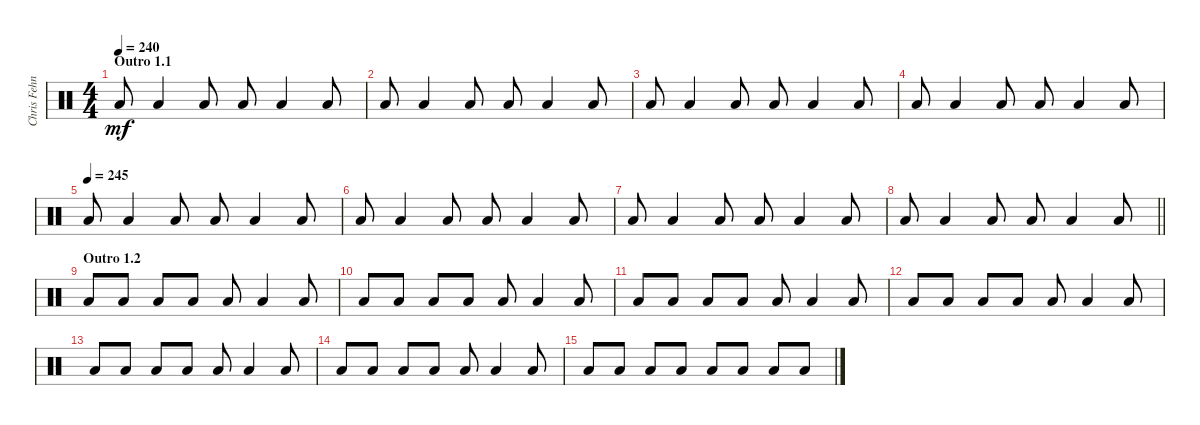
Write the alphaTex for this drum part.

\track ("Chris Fehn" "Chris Fehn") {instrument percussion}
\staff {score}
\articulation defaults
\ts (4 4)
\section ("" "Outro 1.1")
\tempo 240
\clef neutral
\ks c "Low Floor Tom (hit)".8{dy mf} "Low Floor Tom (hit)".4 "Low Floor Tom (hit)".8 "Low Floor Tom (hit)".8 "Low Floor Tom (hit)".4 "Low Floor Tom (hit)".8
|
"Low Floor Tom (hit)".8 "Low Floor Tom (hit)".4 "Low Floor Tom (hit)".8 "Low Floor Tom (hit)".8 "Low Floor Tom (hit)".4 "Low Floor Tom (hit)".8 |
"Low Floor Tom (hit)".8 "Low Floor Tom (hit)".4 "Low Floor Tom (hit)".8 "Low Floor Tom (hit)".8 "Low Floor Tom (hit)".4 "Low Floor Tom (hit)".8 |
"Low Floor Tom (hit)".8 "Low Floor Tom (hit)".4 "Low Floor Tom (hit)".8 "Low Floor Tom (hit)".8 "Low Floor Tom (hit)".4 "Low Floor Tom (hit)".8 |
\tempo (245)
"Low Floor Tom (hit)".8 "Low Floor Tom (hit)".4 "Low Floor Tom (hit)".8 "Low Floor Tom (hit)".8 "Low Floor Tom (hit)".4 "Low Floor Tom (hit)".8 |
"Low Floor Tom (hit)".8 "Low Floor Tom (hit)".4 "Low Floor Tom (hit)".8 "Low Floor Tom (hit)".8 "Low Floor Tom (hit)".4 "Low Floor Tom (hit)".8 |
"Low Floor Tom (hit)".8 "Low Floor Tom (hit)".4 "Low Floor Tom (hit)".8 "Low Floor Tom (hit)".8 "Low Floor Tom (hit)".4 "Low Floor Tom (hit)".8 |
\barLineRight lightlight "Low Floor Tom (hit)".8 "Low Floor Tom (hit)".4 "Low Floor Tom (hit)".8 "Low Floor Tom (hit)".8 "Low Floor Tom (hit)".4 "Low Floor Tom (hit)".8
|
\section ("" "Outro 1.2")
"Low Floor Tom (hit)".8 "Low Floor Tom (hit)".8 "Low Floor Tom (hit)".8 "Low Floor Tom (hit)".8 "Low Floor Tom (hit)".8 "Low Floor Tom (hit)".4 "Low Floor Tom (hit)".8 |
"Low Floor Tom (hit)".8 "Low Floor Tom (hit)".8 "Low Floor Tom (hit)".8 "Low Floor Tom (hit)".8 "Low Floor Tom (hit)".8 "Low Floor Tom (hit)".4 "Low Floor Tom (hit)".8 |
"Low Floor Tom (hit)".8 "Low Floor Tom (hit)".8 "Low Floor Tom (hit)".8 "Low Floor Tom (hit)".8 "Low Floor Tom (hit)".8 "Low Floor Tom (hit)".4 "Low Floor Tom (hit)".8 |
"Low Floor Tom (hit)".8 "Low Floor Tom (hit)".8 "Low Floor Tom (hit)".8 "Low Floor Tom (hit)".8 "Low Floor Tom (hit)".8 "Low Floor Tom (hit)".4 "Low Floor Tom (hit)".8 |
"Low Floor Tom (hit)".8 "Low Floor Tom (hit)".8 "Low Floor Tom (hit)".8 "Low Floor Tom (hit)".8 "Low Floor Tom (hit)".8 "Low Floor Tom (hit)".4 "Low Floor Tom (hit)".8 |
"Low Floor Tom (hit)".8 "Low Floor Tom (hit)".8 "Low Floor Tom (hit)".8 "Low Floor Tom (hit)".8 "Low Floor Tom (hit)".8 "Low Floor Tom (hit)".4 "Low Floor Tom (hit)".8 |
"Low Floor Tom (hit)".8 "Low Floor Tom (hit)".8 "Low Floor Tom (hit)".8 "Low Floor Tom (hit)".8 "Low Floor Tom (hit)".8 "Low Floor Tom (hit)".8 "Low Floor Tom (hit)".8 "Low Floor Tom (hit)".8
